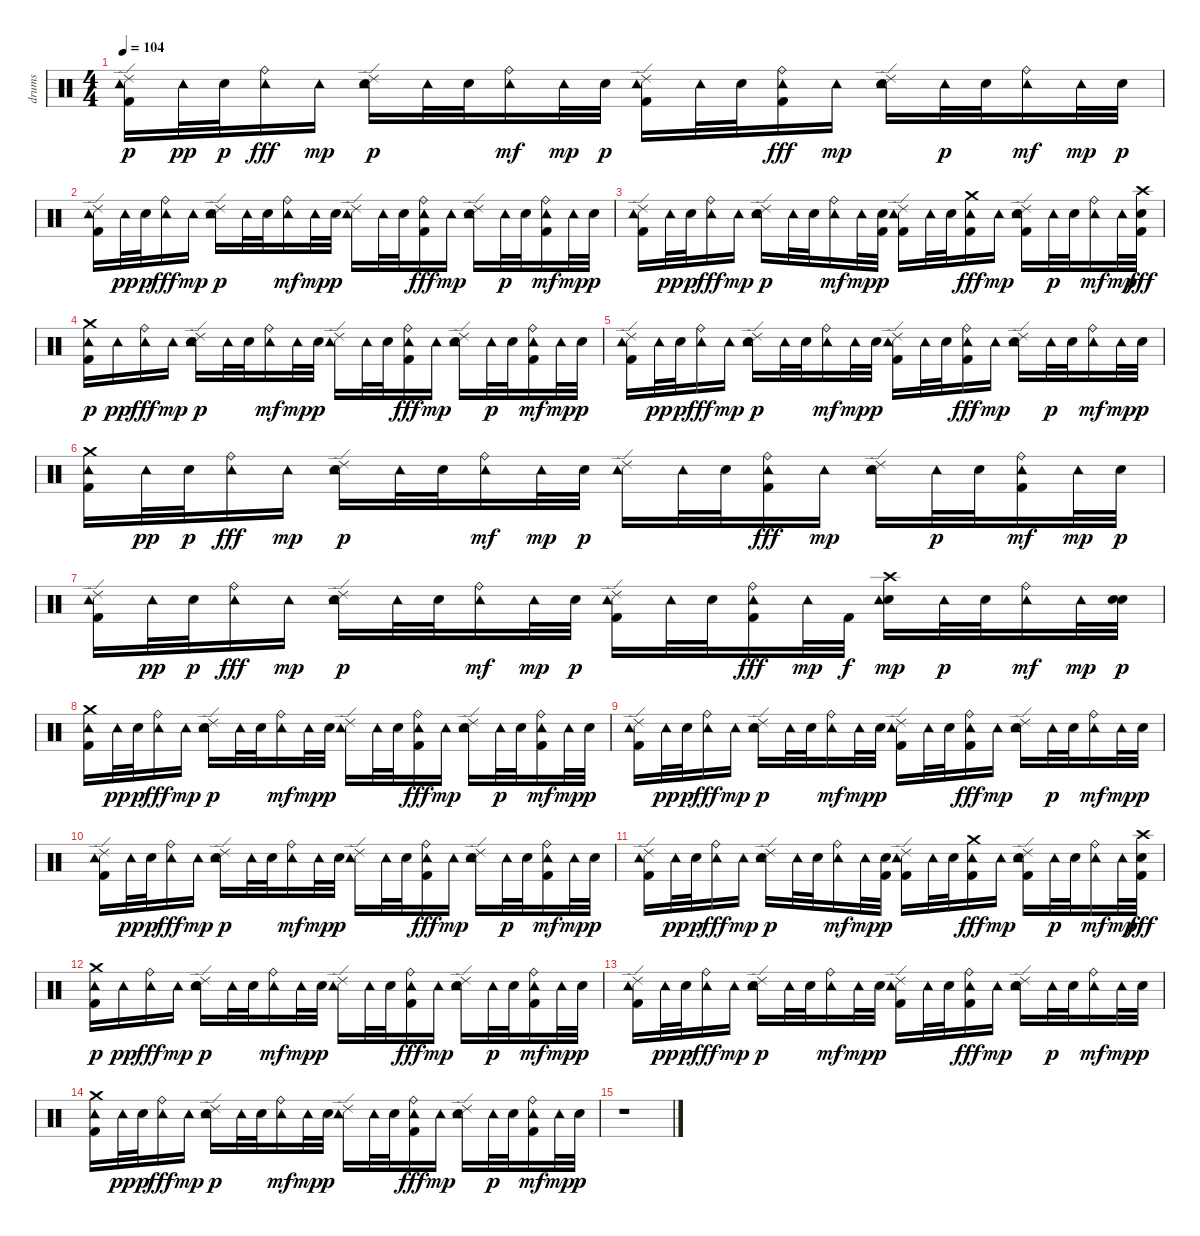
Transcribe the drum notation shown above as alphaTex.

\track ("drums" "drums") {instrument percussion}
\staff {score}
\articulation defaults
\ts (4 4)
\tempo 104
\clef neutral
\ks c
("Kick (hit) 2" "Ride (edge) 2" "Tambourine (hit)").16{dy p} "Tambourine (hit)".32{dy pp} "Electric Snare (hit)".32{dy p} ("Ride (bell)" "Tambourine (hit)").16{dy fff} "Tambourine (hit)".16{dy mp} ("Electric Snare (hit)" "Ride (edge) 2" "Tambourine (hit)").16{dy p} "Tambourine (hit)".32 "Electric Snare (hit)".32 ("Ride (bell)" "Tambourine (hit)").16{dy mf} "Tambourine (hit)".32{dy mp} "Electric Snare (hit)".32{dy p} ("Kick (hit) 2" "Ride (edge) 2" "Tambourine (hit)").16 "Tambourine (hit)".32 "Electric Snare (hit)".32 ("Kick (hit) 2" "Ride (bell)" "Tambourine (hit)").16{dy fff} "Tambourine (hit)".16{dy mp} ("Electric Snare (hit)" "Ride (edge) 2" "Tambourine (hit)").16 "Tambourine (hit)".32{dy p} "Electric Snare (hit)".32 ("Ride (bell)" "Tambourine (hit)").16{dy mf} "Tambourine (hit)".32{dy mp} "Electric Snare (hit)".32{dy p} |
("Kick (hit) 2" "Ride (edge) 2" "Tambourine (hit)").16 "Tambourine (hit)".32{dy pp} "Electric Snare (hit)".32{dy p} ("Ride (bell)" "Tambourine (hit)").16{dy fff} "Tambourine (hit)".16{dy mp} ("Electric Snare (hit)" "Ride (edge) 2" "Tambourine (hit)").16{dy p} "Tambourine (hit)".32 "Electric Snare (hit)".32 ("Ride (bell)" "Tambourine (hit)").16{dy mf} "Tambourine (hit)".32{dy mp} "Electric Snare (hit)".32{dy p} ("Ride (edge) 2" "Tambourine (hit)").16 "Tambourine (hit)".32 "Electric Snare (hit)".32 ("Kick (hit) 2" "Ride (bell)" "Tambourine (hit)").16{dy fff} "Tambourine (hit)".16{dy mp} ("Electric Snare (hit)" "Ride (edge) 2" "Tambourine (hit)").16 "Tambourine (hit)".32{dy p} "Electric Snare (hit)".32 ("Kick (hit) 2" "Ride (bell)" "Tambourine (hit)").16{dy mf} "Tambourine (hit)".32{dy mp} "Electric Snare (hit)".32{dy p} |
("Kick (hit) 2" "Ride (edge) 2" "Tambourine (hit)").16 "Tambourine (hit)".32{dy pp} "Electric Snare (hit)".32{dy p} ("Ride (bell)" "Tambourine (hit)").16{dy fff} "Tambourine (hit)".16{dy mp} ("Electric Snare (hit)" "Ride (edge) 2" "Tambourine (hit)").16{dy p} "Tambourine (hit)".32 "Electric Snare (hit)".32 ("Ride (bell)" "Tambourine (hit)").16{dy mf} "Tambourine (hit)".32{dy mp} ("Kick (hit) 2" "Electric Snare (hit)").32{dy p} ("Kick (hit) 2" "Ride (edge) 2" "Tambourine (hit)").16 "Tambourine (hit)".32 "Electric Snare (hit)".32 ("Kick (hit) 2" "Crash medium (hit)" "Tambourine (hit)").16{dy fff} "Tambourine (hit)".16{dy mp} ("Electric Snare (hit)" "Kick (hit) 2" "Ride (edge) 2" "Tambourine (hit)").16 "Tambourine (hit)".32{dy p} "Electric Snare (hit)".32 ("Ride (bell)" "Tambourine (hit)").16{dy mf} "Tambourine (hit)".32{dy mp} ("Kick (hit) 2" "Electric Snare (hit)" "Crash high (hit)").32{dy fff} |
("Kick (hit) 2" "Crash medium (hit)" "Tambourine (hit)").16{dy p} "Tambourine (hit)".16{dy pp} ("Ride (bell)" "Tambourine (hit)").16{dy fff} "Tambourine (hit)".16{dy mp} ("Electric Snare (hit)" "Ride (edge) 2" "Tambourine (hit)").16{dy p} "Tambourine (hit)".32 "Electric Snare (hit)".32 ("Ride (bell)" "Tambourine (hit)").16{dy mf} "Tambourine (hit)".32{dy mp} "Electric Snare (hit)".32{dy p} ("Ride (edge) 2" "Tambourine (hit)").16 "Tambourine (hit)".32 "Electric Snare (hit)".32 ("Kick (hit) 2" "Ride (bell)" "Tambourine (hit)").16{dy fff} "Tambourine (hit)".16{dy mp} ("Electric Snare (hit)" "Ride (edge) 2" "Tambourine (hit)").16 "Tambourine (hit)".32{dy p} "Electric Snare (hit)".32 ("Kick (hit) 2" "Ride (bell)" "Tambourine (hit)").16{dy mf} "Tambourine (hit)".32{dy mp} "Electric Snare (hit)".32{dy p} |
("Kick (hit) 2" "Ride (edge) 2" "Tambourine (hit)").16 "Tambourine (hit)".32{dy pp} "Electric Snare (hit)".32{dy p} ("Ride (bell)" "Tambourine (hit)").16{dy fff} "Tambourine (hit)".16{dy mp} ("Electric Snare (hit)" "Ride (edge) 2" "Tambourine (hit)").16{dy p} "Tambourine (hit)".32 "Electric Snare (hit)".32 ("Ride (bell)" "Tambourine (hit)").16{dy mf} "Tambourine (hit)".32{dy mp} "Electric Snare (hit)".32{dy p} ("Kick (hit) 2" "Ride (edge) 2" "Tambourine (hit)").16 "Tambourine (hit)".32 "Electric Snare (hit)".32 ("Kick (hit) 2" "Ride (bell)" "Tambourine (hit)").16{dy fff} "Tambourine (hit)".16{dy mp} ("Electric Snare (hit)" "Ride (edge) 2" "Tambourine (hit)").16 "Tambourine (hit)".32{dy p} "Electric Snare (hit)".32 ("Ride (bell)" "Tambourine (hit)").16{dy mf} "Tambourine (hit)".32{dy mp} "Electric Snare (hit)".32{dy p} |
("Kick (hit) 2" "Crash medium (hit)" "Tambourine (hit)").16 "Tambourine (hit)".32{dy pp} "Electric Snare (hit)".32{dy p} ("Ride (bell)" "Tambourine (hit)").16{dy fff} "Tambourine (hit)".16{dy mp} ("Electric Snare (hit)" "Ride (edge) 2" "Tambourine (hit)").16{dy p} "Tambourine (hit)".32 "Electric Snare (hit)".32 ("Ride (bell)" "Tambourine (hit)").16{dy mf} "Tambourine (hit)".32{dy mp} "Electric Snare (hit)".32{dy p} ("Ride (edge) 2" "Tambourine (hit)").16 "Tambourine (hit)".32 "Electric Snare (hit)".32 ("Kick (hit) 2" "Ride (bell)" "Tambourine (hit)").16{dy fff} "Tambourine (hit)".16{dy mp} ("Electric Snare (hit)" "Ride (edge) 2" "Tambourine (hit)").16 "Tambourine (hit)".32{dy p} "Electric Snare (hit)".32 ("Kick (hit) 2" "Ride (bell)" "Tambourine (hit)").16{dy mf} "Tambourine (hit)".32{dy mp} "Electric Snare (hit)".32{dy p} |
("Kick (hit) 2" "Ride (edge) 2" "Tambourine (hit)").16 "Tambourine (hit)".32{dy pp} "Electric Snare (hit)".32{dy p} ("Ride (bell)" "Tambourine (hit)").16{dy fff} "Tambourine (hit)".16{dy mp} ("Electric Snare (hit)" "Ride (edge) 2" "Tambourine (hit)").16{dy p} "Tambourine (hit)".32 "Electric Snare (hit)".32 ("Ride (bell)" "Tambourine (hit)").16{dy mf} "Tambourine (hit)".32{dy mp} "Electric Snare (hit)".32{dy p} ("Kick (hit) 2" "Ride (edge) 2" "Tambourine (hit)").16 "Tambourine (hit)".32 "Electric Snare (hit)".32 ("Kick (hit) 2" "Ride (bell)" "Tambourine (hit)").16{dy fff} "Tambourine (hit)".32{dy mp} "Kick (hit) 2".32{dy f} ("Electric Snare (hit)" "Crash high (hit)" "Tambourine (hit)").16{dy mp} "Tambourine (hit)".32{dy p} "Electric Snare (hit)".32 ("Ride (bell)" "Tambourine (hit)").16{dy mf} "Tambourine (hit)".32{dy mp} ("Electric Snare (hit)" "Electric Snare (hit)").32{dy p} |
("Kick (hit) 2" "Crash medium (hit)" "Tambourine (hit)").16 "Tambourine (hit)".32{dy pp} "Electric Snare (hit)".32{dy p} ("Ride (bell)" "Tambourine (hit)").16{dy fff} "Tambourine (hit)".16{dy mp} ("Electric Snare (hit)" "Ride (edge) 2" "Tambourine (hit)").16{dy p} "Tambourine (hit)".32 "Electric Snare (hit)".32 ("Ride (bell)" "Tambourine (hit)").16{dy mf} "Tambourine (hit)".32{dy mp} "Electric Snare (hit)".32{dy p} ("Ride (edge) 2" "Tambourine (hit)").16 "Tambourine (hit)".32 "Electric Snare (hit)".32 ("Kick (hit) 2" "Ride (bell)" "Tambourine (hit)").16{dy fff} "Tambourine (hit)".16{dy mp} ("Electric Snare (hit)" "Ride (edge) 2" "Tambourine (hit)").16 "Tambourine (hit)".32{dy p} "Electric Snare (hit)".32 ("Kick (hit) 2" "Ride (bell)" "Tambourine (hit)").16{dy mf} "Tambourine (hit)".32{dy mp} "Electric Snare (hit)".32{dy p} |
("Kick (hit) 2" "Ride (edge) 2" "Tambourine (hit)").16 "Tambourine (hit)".32{dy pp} "Electric Snare (hit)".32{dy p} ("Ride (bell)" "Tambourine (hit)").16{dy fff} "Tambourine (hit)".16{dy mp} ("Electric Snare (hit)" "Ride (edge) 2" "Tambourine (hit)").16{dy p} "Tambourine (hit)".32 "Electric Snare (hit)".32 ("Ride (bell)" "Tambourine (hit)").16{dy mf} "Tambourine (hit)".32{dy mp} "Electric Snare (hit)".32{dy p} ("Kick (hit) 2" "Ride (edge) 2" "Tambourine (hit)").16 "Tambourine (hit)".32 "Electric Snare (hit)".32 ("Kick (hit) 2" "Ride (bell)" "Tambourine (hit)").16{dy fff} "Tambourine (hit)".16{dy mp} ("Electric Snare (hit)" "Ride (edge) 2" "Tambourine (hit)").16 "Tambourine (hit)".32{dy p} "Electric Snare (hit)".32 ("Ride (bell)" "Tambourine (hit)").16{dy mf} "Tambourine (hit)".32{dy mp} "Electric Snare (hit)".32{dy p} |
("Kick (hit) 2" "Ride (edge) 2" "Tambourine (hit)").16 "Tambourine (hit)".32{dy pp} "Electric Snare (hit)".32{dy p} ("Ride (bell)" "Tambourine (hit)").16{dy fff} "Tambourine (hit)".16{dy mp} ("Electric Snare (hit)" "Ride (edge) 2" "Tambourine (hit)").16{dy p} "Tambourine (hit)".32 "Electric Snare (hit)".32 ("Ride (bell)" "Tambourine (hit)").16{dy mf} "Tambourine (hit)".32{dy mp} "Electric Snare (hit)".32{dy p} ("Ride (edge) 2" "Tambourine (hit)").16 "Tambourine (hit)".32 "Electric Snare (hit)".32 ("Kick (hit) 2" "Ride (bell)" "Tambourine (hit)").16{dy fff} "Tambourine (hit)".16{dy mp} ("Electric Snare (hit)" "Ride (edge) 2" "Tambourine (hit)").16 "Tambourine (hit)".32{dy p} "Electric Snare (hit)".32 ("Kick (hit) 2" "Ride (bell)" "Tambourine (hit)").16{dy mf} "Tambourine (hit)".32{dy mp} "Electric Snare (hit)".32{dy p} |
("Kick (hit) 2" "Ride (edge) 2" "Tambourine (hit)").16 "Tambourine (hit)".32{dy pp} "Electric Snare (hit)".32{dy p} ("Ride (bell)" "Tambourine (hit)").16{dy fff} "Tambourine (hit)".16{dy mp} ("Electric Snare (hit)" "Ride (edge) 2" "Tambourine (hit)").16{dy p} "Tambourine (hit)".32 "Electric Snare (hit)".32 ("Ride (bell)" "Tambourine (hit)").16{dy mf} "Tambourine (hit)".32{dy mp} ("Kick (hit) 2" "Electric Snare (hit)").32{dy p} ("Kick (hit) 2" "Ride (edge) 2" "Tambourine (hit)").16 "Tambourine (hit)".32 "Electric Snare (hit)".32 ("Kick (hit) 2" "Crash medium (hit)" "Tambourine (hit)").16{dy fff} "Tambourine (hit)".16{dy mp} ("Electric Snare (hit)" "Kick (hit) 2" "Ride (edge) 2" "Tambourine (hit)").16 "Tambourine (hit)".32{dy p} "Electric Snare (hit)".32 ("Ride (bell)" "Tambourine (hit)").16{dy mf} "Tambourine (hit)".32{dy mp} ("Kick (hit) 2" "Electric Snare (hit)" "Crash high (hit)").32{dy fff} |
("Kick (hit) 2" "Crash medium (hit)" "Tambourine (hit)").16{dy p} "Tambourine (hit)".16{dy pp} ("Ride (bell)" "Tambourine (hit)").16{dy fff} "Tambourine (hit)".16{dy mp} ("Electric Snare (hit)" "Ride (edge) 2" "Tambourine (hit)").16{dy p} "Tambourine (hit)".32 "Electric Snare (hit)".32 ("Ride (bell)" "Tambourine (hit)").16{dy mf} "Tambourine (hit)".32{dy mp} "Electric Snare (hit)".32{dy p} ("Ride (edge) 2" "Tambourine (hit)").16 "Tambourine (hit)".32 "Electric Snare (hit)".32 ("Kick (hit) 2" "Ride (bell)" "Tambourine (hit)").16{dy fff} "Tambourine (hit)".16{dy mp} ("Electric Snare (hit)" "Ride (edge) 2" "Tambourine (hit)").16 "Tambourine (hit)".32{dy p} "Electric Snare (hit)".32 ("Kick (hit) 2" "Ride (bell)" "Tambourine (hit)").16{dy mf} "Tambourine (hit)".32{dy mp} "Electric Snare (hit)".32{dy p} |
("Kick (hit) 2" "Ride (edge) 2" "Tambourine (hit)").16 "Tambourine (hit)".32{dy pp} "Electric Snare (hit)".32{dy p} ("Ride (bell)" "Tambourine (hit)").16{dy fff} "Tambourine (hit)".16{dy mp} ("Electric Snare (hit)" "Ride (edge) 2" "Tambourine (hit)").16{dy p} "Tambourine (hit)".32 "Electric Snare (hit)".32 ("Ride (bell)" "Tambourine (hit)").16{dy mf} "Tambourine (hit)".32{dy mp} "Electric Snare (hit)".32{dy p} ("Kick (hit) 2" "Ride (edge) 2" "Tambourine (hit)").16 "Tambourine (hit)".32 "Electric Snare (hit)".32 ("Kick (hit) 2" "Ride (bell)" "Tambourine (hit)").16{dy fff} "Tambourine (hit)".16{dy mp} ("Electric Snare (hit)" "Ride (edge) 2" "Tambourine (hit)").16 "Tambourine (hit)".32{dy p} "Electric Snare (hit)".32 ("Ride (bell)" "Tambourine (hit)").16{dy mf} "Tambourine (hit)".32{dy mp} "Electric Snare (hit)".32{dy p} |
("Kick (hit) 2" "Crash medium (hit)" "Tambourine (hit)").16 "Tambourine (hit)".32{dy pp} "Electric Snare (hit)".32{dy p} ("Ride (bell)" "Tambourine (hit)").16{dy fff} "Tambourine (hit)".16{dy mp} ("Electric Snare (hit)" "Ride (edge) 2" "Tambourine (hit)").16{dy p} "Tambourine (hit)".32 "Electric Snare (hit)".32 ("Ride (bell)" "Tambourine (hit)").16{dy mf} "Tambourine (hit)".32{dy mp} "Electric Snare (hit)".32{dy p} ("Ride (edge) 2" "Tambourine (hit)").16 "Tambourine (hit)".32 "Electric Snare (hit)".32 ("Kick (hit) 2" "Ride (bell)" "Tambourine (hit)").16{dy fff} "Tambourine (hit)".16{dy mp} ("Electric Snare (hit)" "Ride (edge) 2" "Tambourine (hit)").16 "Tambourine (hit)".32{dy p} "Electric Snare (hit)".32 ("Kick (hit) 2" "Ride (bell)" "Tambourine (hit)").16{dy mf} "Tambourine (hit)".32{dy mp} "Electric Snare (hit)".32{dy p} |
r.1
